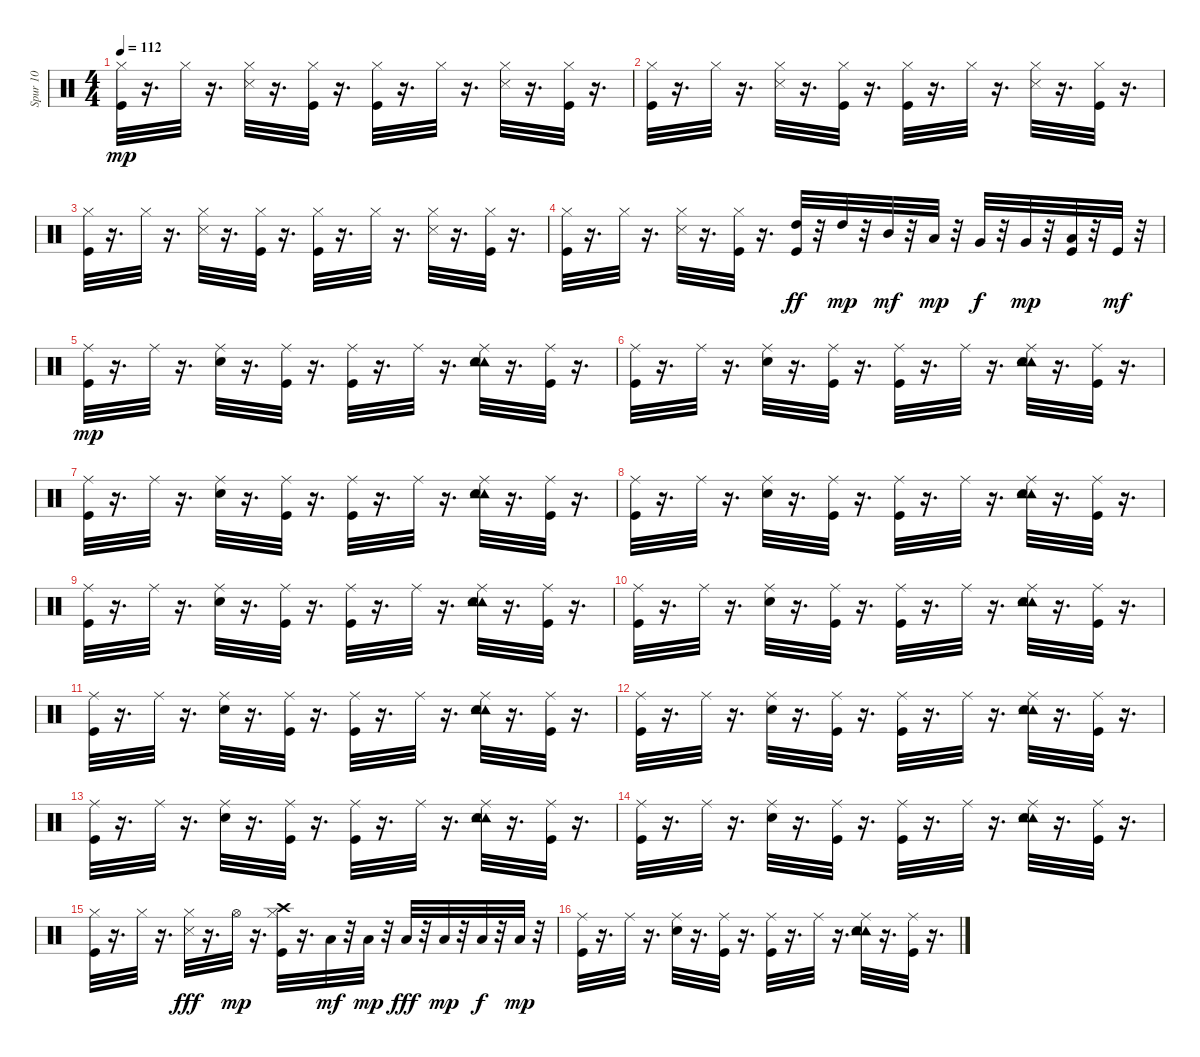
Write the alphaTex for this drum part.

\track ("Spur 10" "Spur 10") {instrument percussion}
\staff {score}
\articulation defaults
\ts (4 4)
\tempo 112
\clef neutral
\ks c
("Kick (hit)" "Hi-Hat (closed)").32{dy mp} r.16{d} "Hi-Hat (closed)".32 r.16{d} ("Snare (side stick) 3" "Hi-Hat (closed)").32 r.16{d} ("Kick (hit)" "Hi-Hat (closed)").32 r.16{d} ("Kick (hit)" "Hi-Hat (closed)").32 r.16{d} "Hi-Hat (closed)".32 r.16{d} ("Snare (side stick) 3" "Hi-Hat (closed)").32 r.16{d} ("Kick (hit)" "Hi-Hat (closed)").32 r.16{d} |
("Kick (hit)" "Hi-Hat (closed)").32 r.16{d} "Hi-Hat (closed)".32 r.16{d} ("Snare (side stick) 3" "Hi-Hat (closed)").32 r.16{d} ("Kick (hit)" "Hi-Hat (closed)").32 r.16{d} ("Kick (hit)" "Hi-Hat (closed)").32 r.16{d} "Hi-Hat (closed)".32 r.16{d} ("Snare (side stick) 3" "Hi-Hat (closed)").32 r.16{d} ("Kick (hit)" "Hi-Hat (closed)").32 r.16{d} |
("Kick (hit)" "Hi-Hat (closed)").32 r.16{d} "Hi-Hat (closed)".32 r.16{d} ("Snare (side stick) 3" "Hi-Hat (closed)").32 r.16{d} ("Kick (hit)" "Hi-Hat (closed)").32 r.16{d} ("Kick (hit)" "Hi-Hat (closed)").32 r.16{d} "Hi-Hat (closed)".32 r.16{d} ("Snare (side stick) 3" "Hi-Hat (closed)").32 r.16{d} ("Kick (hit)" "Hi-Hat (closed)").32 r.16{d} |
("Kick (hit)" "Hi-Hat (closed)").32 r.16{d} "Hi-Hat (closed)".32 r.16{d} ("Snare (side stick) 3" "Hi-Hat (closed)").32 r.16{d} ("Kick (hit)" "Hi-Hat (closed)").32 r.16{d} ("Kick (hit)" "High Tom (hit)").32{dy ff} r.32 "High Tom (hit)".32{dy mp} r.32 "Mid Tom (hit)".32{dy mf} r.32 "Low Tom (hit)".32{dy mp} r.32 "Very Low Tom (hit)".32{dy f} r.32 "Very Low Tom (hit)".32{dy mp} r.32 ("Kick (hit)" "Low Floor Tom (hit)").32 r.32 "Kick (hit)".32{dy mf} r.32 |
("Kick (hit)" "Ride (middle)").32{dy mp} r.16{d} "Ride (middle)".32 r.16{d} ("Snare (hit) 2" "Ride (middle)").32 r.16{d} ("Kick (hit)" "Ride (middle)").32 r.16{d} ("Kick (hit)" "Ride (middle)").32 r.16{d} "Ride (middle)".32 r.16{d} ("Tambourine (hit)" "Snare (hit) 2" "Tambourine (hit)" "Ride (middle)").32 r.16{d} ("Kick (hit)" "Ride (middle)").32 r.16{d} |
("Kick (hit)" "Ride (middle)").32 r.16{d} "Ride (middle)".32 r.16{d} ("Snare (hit) 2" "Ride (middle)").32 r.16{d} ("Kick (hit)" "Ride (middle)").32 r.16{d} ("Kick (hit)" "Ride (middle)").32 r.16{d} "Ride (middle)".32 r.16{d} ("Tambourine (hit)" "Snare (hit) 2" "Tambourine (hit)" "Ride (middle)").32 r.16{d} ("Kick (hit)" "Ride (middle)").32 r.16{d} |
("Kick (hit)" "Ride (middle)").32 r.16{d} "Ride (middle)".32 r.16{d} ("Snare (hit) 2" "Ride (middle)").32 r.16{d} ("Kick (hit)" "Ride (middle)").32 r.16{d} ("Kick (hit)" "Ride (middle)").32 r.16{d} "Ride (middle)".32 r.16{d} ("Tambourine (hit)" "Snare (hit) 2" "Tambourine (hit)" "Ride (middle)").32 r.16{d} ("Kick (hit)" "Ride (middle)").32 r.16{d} |
("Kick (hit)" "Ride (middle)").32 r.16{d} "Ride (middle)".32 r.16{d} ("Snare (hit) 2" "Ride (middle)").32 r.16{d} ("Kick (hit)" "Ride (middle)").32 r.16{d} ("Kick (hit)" "Ride (middle)").32 r.16{d} "Ride (middle)".32 r.16{d} ("Tambourine (hit)" "Snare (hit) 2" "Tambourine (hit)" "Ride (middle)").32 r.16{d} ("Kick (hit)" "Ride (middle)").32 r.16{d} |
("Kick (hit)" "Ride (middle)").32 r.16{d} "Ride (middle)".32 r.16{d} ("Snare (hit) 2" "Ride (middle)").32 r.16{d} ("Kick (hit)" "Ride (middle)").32 r.16{d} ("Kick (hit)" "Ride (middle)").32 r.16{d} "Ride (middle)".32 r.16{d} ("Tambourine (hit)" "Snare (hit) 2" "Tambourine (hit)" "Ride (middle)").32 r.16{d} ("Kick (hit)" "Ride (middle)").32 r.16{d} |
("Kick (hit)" "Ride (middle)").32 r.16{d} "Ride (middle)".32 r.16{d} ("Snare (hit) 2" "Ride (middle)").32 r.16{d} ("Kick (hit)" "Ride (middle)").32 r.16{d} ("Kick (hit)" "Ride (middle)").32 r.16{d} "Ride (middle)".32 r.16{d} ("Tambourine (hit)" "Snare (hit) 2" "Tambourine (hit)" "Ride (middle)").32 r.16{d} ("Kick (hit)" "Ride (middle)").32 r.16{d} |
("Kick (hit)" "Ride (middle)").32 r.16{d} "Ride (middle)".32 r.16{d} ("Snare (hit) 2" "Ride (middle)").32 r.16{d} ("Kick (hit)" "Ride (middle)").32 r.16{d} ("Kick (hit)" "Ride (middle)").32 r.16{d} "Ride (middle)".32 r.16{d} ("Tambourine (hit)" "Snare (hit) 2" "Tambourine (hit)" "Ride (middle)").32 r.16{d} ("Kick (hit)" "Ride (middle)").32 r.16{d} |
("Kick (hit)" "Ride (middle)").32 r.16{d} "Ride (middle)".32 r.16{d} ("Snare (hit) 2" "Ride (middle)").32 r.16{d} ("Kick (hit)" "Ride (middle)").32 r.16{d} ("Kick (hit)" "Ride (middle)").32 r.16{d} "Ride (middle)".32 r.16{d} ("Tambourine (hit)" "Snare (hit) 2" "Tambourine (hit)" "Ride (middle)").32 r.16{d} ("Kick (hit)" "Ride (middle)").32 r.16{d} |
("Kick (hit)" "Ride (middle)").32 r.16{d} "Ride (middle)".32 r.16{d} ("Snare (hit) 2" "Ride (middle)").32 r.16{d} ("Kick (hit)" "Ride (middle)").32 r.16{d} ("Kick (hit)" "Ride (middle)").32 r.16{d} "Ride (middle)".32 r.16{d} ("Tambourine (hit)" "Snare (hit) 2" "Tambourine (hit)" "Ride (middle)").32 r.16{d} ("Kick (hit)" "Ride (middle)").32 r.16{d} |
("Kick (hit)" "Ride (middle)").32 r.16{d} "Ride (middle)".32 r.16{d} ("Snare (hit) 2" "Ride (middle)").32 r.16{d} ("Kick (hit)" "Ride (middle)").32 r.16{d} ("Kick (hit)" "Ride (middle)").32 r.16{d} "Ride (middle)".32 r.16{d} ("Tambourine (hit)" "Snare (hit) 2" "Tambourine (hit)" "Ride (middle)").32 r.16{d} ("Kick (hit)" "Ride (middle)").32 r.16{d} |
("Kick (hit)" "Hi-Hat (closed)").32 r.16{d} "Hi-Hat (closed)".32 r.16{d} ("Hi-Hat (closed)" "Snare (side stick) 3").32{dy fff} r.16{d} "Hi-Hat (open)".32{dy mp} r.16{d} ("Crash high (hit)" "Kick (hit)" "Hi-Hat (closed)").32 r.16{d} "Low Tom (hit)".32{dy mf} r.32 "Low Tom (hit)".32{dy mp} r.32 "Low Floor Tom (hit)".32{dy fff} r.32 "Low Floor Tom (hit)".32{dy mp} r.32 "Low Floor Tom (hit)".32{dy f} r.32 "Low Floor Tom (hit)".32{dy mp} r.32 |
("Kick (hit)" "Ride (middle)").32 r.16{d} "Ride (middle)".32 r.16{d} ("Snare (hit) 2" "Ride (middle)").32 r.16{d} ("Kick (hit)" "Ride (middle)").32 r.16{d} ("Kick (hit)" "Ride (middle)").32 r.16{d} "Ride (middle)".32 r.16{d} ("Tambourine (hit)" "Snare (hit) 2" "Tambourine (hit)" "Ride (middle)").32 r.16{d} ("Kick (hit)" "Ride (middle)").32 r.16{d}
